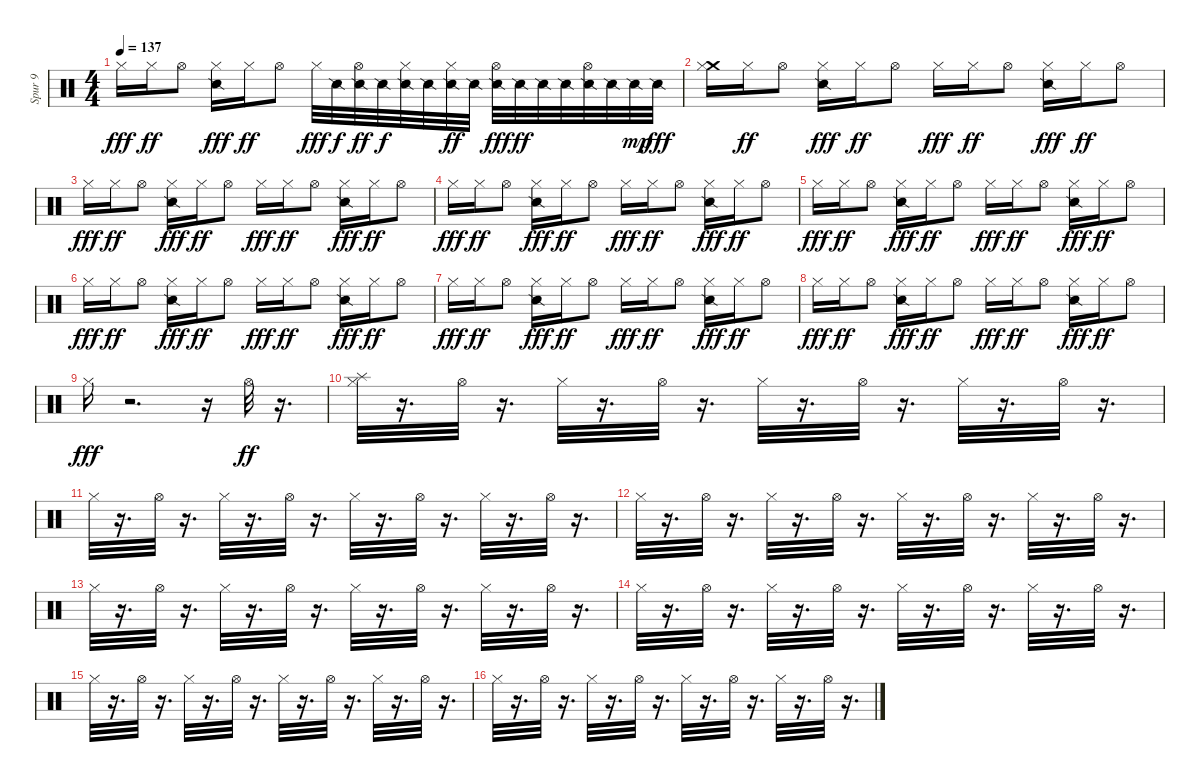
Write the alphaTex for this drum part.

\track ("Spur 9" "Spur 9") {instrument percussion}
\staff {score}
\articulation defaults
\ts (4 4)
\tempo 137
\clef neutral
\ks c "Hi-Hat (closed)".16{dy fff} "Hi-Hat (closed)".16{dy ff} "Hi-Hat (open)".8
("Snare (side stick) 2" "Hi-Hat (closed)").16{dy fff} "Hi-Hat (closed)".16{dy ff} "Hi-Hat (open)".8 "Hi-Hat (closed)".32{dy fff} "Snare (side stick) 2".32{dy f} ("Snare (side stick) 2" "Hi-Hat (open)").32{dy ff} "Snare (side stick) 2".32{dy f} ("Snare (side stick) 2" "Hi-Hat (closed)").32 "Snare (side stick) 2".32 ("Snare (side stick) 2" "Hi-Hat (closed)").32{dy ff} "Snare (side stick) 2".32 ("Snare (side stick) 2" "Hi-Hat (open)").32{dy fff} "Snare (side stick) 2".32{dy ff} "Snare (side stick) 2".32 "Snare (side stick) 2".32 ("Snare (side stick) 2" "Hi-Hat (open)").32 "Snare (side stick) 2".32 "Snare (side stick) 2".32{dy mp} "Snare (side stick) 2".32{dy fff} |
("Crash medium (hit)" "Hi-Hat (closed)").16 "Hi-Hat (closed)".16{dy ff} "Hi-Hat (open)".8 ("Snare (side stick) 2" "Hi-Hat (closed)").16{dy fff} "Hi-Hat (closed)".16{dy ff} "Hi-Hat (open)".8 "Hi-Hat (closed)".16{dy fff} "Hi-Hat (closed)".16{dy ff} "Hi-Hat (open)".8 ("Snare (side stick) 2" "Hi-Hat (closed)").16{dy fff} "Hi-Hat (closed)".16{dy ff} "Hi-Hat (open)".8 |
"Hi-Hat (closed)".16{dy fff} "Hi-Hat (closed)".16{dy ff} "Hi-Hat (open)".8 ("Snare (side stick) 2" "Hi-Hat (closed)").16{dy fff} "Hi-Hat (closed)".16{dy ff} "Hi-Hat (open)".8 "Hi-Hat (closed)".16{dy fff} "Hi-Hat (closed)".16{dy ff} "Hi-Hat (open)".8 ("Snare (side stick) 2" "Hi-Hat (closed)").16{dy fff} "Hi-Hat (closed)".16{dy ff} "Hi-Hat (open)".8 |
"Hi-Hat (closed)".16{dy fff} "Hi-Hat (closed)".16{dy ff} "Hi-Hat (open)".8 ("Snare (side stick) 2" "Hi-Hat (closed)").16{dy fff} "Hi-Hat (closed)".16{dy ff} "Hi-Hat (open)".8 "Hi-Hat (closed)".16{dy fff} "Hi-Hat (closed)".16{dy ff} "Hi-Hat (open)".8 ("Snare (side stick) 2" "Hi-Hat (closed)").16{dy fff} "Hi-Hat (closed)".16{dy ff} "Hi-Hat (open)".8 |
"Hi-Hat (closed)".16{dy fff} "Hi-Hat (closed)".16{dy ff} "Hi-Hat (open)".8 ("Snare (side stick) 2" "Hi-Hat (closed)").16{dy fff} "Hi-Hat (closed)".16{dy ff} "Hi-Hat (open)".8 "Hi-Hat (closed)".16{dy fff} "Hi-Hat (closed)".16{dy ff} "Hi-Hat (open)".8 ("Snare (side stick) 2" "Hi-Hat (closed)").16{dy fff} "Hi-Hat (closed)".16{dy ff} "Hi-Hat (open)".8 |
"Hi-Hat (closed)".16{dy fff} "Hi-Hat (closed)".16{dy ff} "Hi-Hat (open)".8 ("Snare (side stick) 2" "Hi-Hat (closed)").16{dy fff} "Hi-Hat (closed)".16{dy ff} "Hi-Hat (open)".8 "Hi-Hat (closed)".16{dy fff} "Hi-Hat (closed)".16{dy ff} "Hi-Hat (open)".8 ("Snare (side stick) 2" "Hi-Hat (closed)").16{dy fff} "Hi-Hat (closed)".16{dy ff} "Hi-Hat (open)".8 |
"Hi-Hat (closed)".16{dy fff} "Hi-Hat (closed)".16{dy ff} "Hi-Hat (open)".8 ("Snare (side stick) 2" "Hi-Hat (closed)").16{dy fff} "Hi-Hat (closed)".16{dy ff} "Hi-Hat (open)".8 "Hi-Hat (closed)".16{dy fff} "Hi-Hat (closed)".16{dy ff} "Hi-Hat (open)".8 ("Snare (side stick) 2" "Hi-Hat (closed)").16{dy fff} "Hi-Hat (closed)".16{dy ff} "Hi-Hat (open)".8 |
"Hi-Hat (closed)".16{dy fff} "Hi-Hat (closed)".16{dy ff} "Hi-Hat (open)".8 ("Snare (side stick) 2" "Hi-Hat (closed)").16{dy fff} "Hi-Hat (closed)".16{dy ff} "Hi-Hat (open)".8 "Hi-Hat (closed)".16{dy fff} "Hi-Hat (closed)".16{dy ff} "Hi-Hat (open)".8 ("Snare (side stick) 2" "Hi-Hat (closed)").16{dy fff} "Hi-Hat (closed)".16{dy ff} "Hi-Hat (open)".8 |
"Hi-Hat (closed)".16{dy fff} r.2{d} r.16 "Hi-Hat (open)".32{dy ff} r.16{d} |
("Splash (hit)" "Hi-Hat (closed)").32 r.16{d} "Hi-Hat (open)".32 r.16{d} "Hi-Hat (closed)".32 r.16{d} "Hi-Hat (open)".32 r.16{d} "Hi-Hat (closed)".32 r.16{d} "Hi-Hat (open)".32 r.16{d} "Hi-Hat (closed)".32 r.16{d} "Hi-Hat (open)".32 r.16{d} |
"Hi-Hat (closed)".32 r.16{d} "Hi-Hat (open)".32 r.16{d} "Hi-Hat (closed)".32 r.16{d} "Hi-Hat (open)".32 r.16{d} "Hi-Hat (closed)".32 r.16{d} "Hi-Hat (open)".32 r.16{d} "Hi-Hat (closed)".32 r.16{d} "Hi-Hat (open)".32 r.16{d} |
"Hi-Hat (closed)".32 r.16{d} "Hi-Hat (open)".32 r.16{d} "Hi-Hat (closed)".32 r.16{d} "Hi-Hat (open)".32 r.16{d} "Hi-Hat (closed)".32 r.16{d} "Hi-Hat (open)".32 r.16{d} "Hi-Hat (closed)".32 r.16{d} "Hi-Hat (open)".32 r.16{d} |
"Hi-Hat (closed)".32 r.16{d} "Hi-Hat (open)".32 r.16{d} "Hi-Hat (closed)".32 r.16{d} "Hi-Hat (open)".32 r.16{d} "Hi-Hat (closed)".32 r.16{d} "Hi-Hat (open)".32 r.16{d} "Hi-Hat (closed)".32 r.16{d} "Hi-Hat (open)".32 r.16{d} |
"Hi-Hat (closed)".32 r.16{d} "Hi-Hat (open)".32 r.16{d} "Hi-Hat (closed)".32 r.16{d} "Hi-Hat (open)".32 r.16{d} "Hi-Hat (closed)".32 r.16{d} "Hi-Hat (open)".32 r.16{d} "Hi-Hat (closed)".32 r.16{d} "Hi-Hat (open)".32 r.16{d} |
"Hi-Hat (closed)".32 r.16{d} "Hi-Hat (open)".32 r.16{d} "Hi-Hat (closed)".32 r.16{d} "Hi-Hat (open)".32 r.16{d} "Hi-Hat (closed)".32 r.16{d} "Hi-Hat (open)".32 r.16{d} "Hi-Hat (closed)".32 r.16{d} "Hi-Hat (open)".32 r.16{d} |
"Hi-Hat (closed)".32 r.16{d} "Hi-Hat (open)".32 r.16{d} "Hi-Hat (closed)".32 r.16{d} "Hi-Hat (open)".32 r.16{d} "Hi-Hat (closed)".32 r.16{d} "Hi-Hat (open)".32 r.16{d} "Hi-Hat (closed)".32 r.16{d} "Hi-Hat (open)".32 r.16{d}
